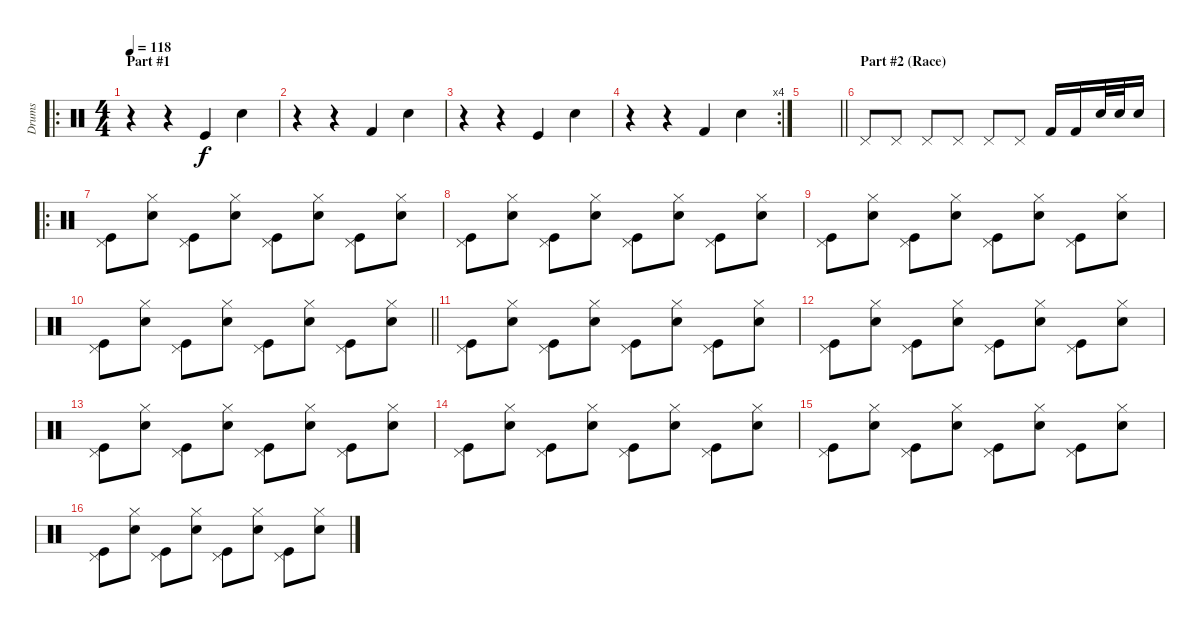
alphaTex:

\track ("Drums" "Drums") {instrument percussion}
\staff {score}
\articulation defaults
\ro
\ts (4 4)
\section ("" "Part #1")
\tempo 118
\clef neutral
\ks c
r.4{dy f} r.4 "Kick (hit)".4 "Electric Snare (hit)".4 |
r.4 r.4 "Kick (hit) 2".4 "Electric Snare (hit)".4 |
r.4 r.4 "Kick (hit)".4 "Electric Snare (hit)".4 |
\rc 4
r.4 r.4 "Kick (hit) 2".4 "Electric Snare (hit)".4 |
\barLineRight lightlight
|
\section ("" "Part #2 (Race)")
"Pedal Hi-Hat (hit)".8 "Pedal Hi-Hat (hit)".8 "Pedal Hi-Hat (hit)".8 "Pedal Hi-Hat (hit)".8 "Pedal Hi-Hat (hit)".8 "Pedal Hi-Hat (hit)".8 "Kick (hit) 2".16 "Kick (hit) 2".16 "Electric Snare (hit)".32 "Electric Snare (hit)".32 "Electric Snare (hit)".16 |
\ro
("Pedal Hi-Hat (hit)" "Kick (hit)").8 ("Hi-Hat (closed)" "Electric Snare (hit)").8 ("Pedal Hi-Hat (hit)" "Kick (hit)").8 ("Hi-Hat (closed)" "Electric Snare (hit)").8 ("Pedal Hi-Hat (hit)" "Kick (hit)").8 ("Hi-Hat (closed)" "Electric Snare (hit)").8 ("Pedal Hi-Hat (hit)" "Kick (hit)").8 ("Hi-Hat (closed)" "Electric Snare (hit)").8 |
("Pedal Hi-Hat (hit)" "Kick (hit)").8 ("Hi-Hat (closed)" "Electric Snare (hit)").8 ("Pedal Hi-Hat (hit)" "Kick (hit)").8 ("Hi-Hat (closed)" "Electric Snare (hit)").8 ("Pedal Hi-Hat (hit)" "Kick (hit)").8 ("Hi-Hat (closed)" "Electric Snare (hit)").8 ("Pedal Hi-Hat (hit)" "Kick (hit)").8 ("Hi-Hat (closed)" "Electric Snare (hit)").8 |
("Pedal Hi-Hat (hit)" "Kick (hit)").8 ("Hi-Hat (closed)" "Electric Snare (hit)").8 ("Pedal Hi-Hat (hit)" "Kick (hit)").8 ("Hi-Hat (closed)" "Electric Snare (hit)").8 ("Pedal Hi-Hat (hit)" "Kick (hit)").8 ("Hi-Hat (closed)" "Electric Snare (hit)").8 ("Pedal Hi-Hat (hit)" "Kick (hit)").8 ("Hi-Hat (closed)" "Electric Snare (hit)").8 |
\barLineRight lightlight
("Pedal Hi-Hat (hit)" "Kick (hit)").8 ("Hi-Hat (closed)" "Electric Snare (hit)").8 ("Pedal Hi-Hat (hit)" "Kick (hit)").8 ("Hi-Hat (closed)" "Electric Snare (hit)").8 ("Pedal Hi-Hat (hit)" "Kick (hit)").8 ("Hi-Hat (closed)" "Electric Snare (hit)").8 ("Pedal Hi-Hat (hit)" "Kick (hit)").8 ("Hi-Hat (closed)" "Electric Snare (hit)").8 |
\section ("" " ")
("Pedal Hi-Hat (hit)" "Kick (hit)").8 ("Hi-Hat (closed)" "Electric Snare (hit)").8 ("Pedal Hi-Hat (hit)" "Kick (hit)").8 ("Hi-Hat (closed)" "Electric Snare (hit)").8 ("Pedal Hi-Hat (hit)" "Kick (hit)").8 ("Hi-Hat (closed)" "Electric Snare (hit)").8 ("Pedal Hi-Hat (hit)" "Kick (hit)").8 ("Hi-Hat (closed)" "Electric Snare (hit)").8 |
("Pedal Hi-Hat (hit)" "Kick (hit)").8 ("Hi-Hat (closed)" "Electric Snare (hit)").8 ("Pedal Hi-Hat (hit)" "Kick (hit)").8 ("Hi-Hat (closed)" "Electric Snare (hit)").8 ("Pedal Hi-Hat (hit)" "Kick (hit)").8 ("Hi-Hat (closed)" "Electric Snare (hit)").8 ("Pedal Hi-Hat (hit)" "Kick (hit)").8 ("Hi-Hat (closed)" "Electric Snare (hit)").8 |
("Pedal Hi-Hat (hit)" "Kick (hit)").8 ("Hi-Hat (closed)" "Electric Snare (hit)").8 ("Pedal Hi-Hat (hit)" "Kick (hit)").8 ("Hi-Hat (closed)" "Electric Snare (hit)").8 ("Pedal Hi-Hat (hit)" "Kick (hit)").8 ("Hi-Hat (closed)" "Electric Snare (hit)").8 ("Pedal Hi-Hat (hit)" "Kick (hit)").8 ("Hi-Hat (closed)" "Electric Snare (hit)").8 |
("Pedal Hi-Hat (hit)" "Kick (hit)").8 ("Hi-Hat (closed)" "Electric Snare (hit)").8 ("Pedal Hi-Hat (hit)" "Kick (hit)").8 ("Hi-Hat (closed)" "Electric Snare (hit)").8 ("Pedal Hi-Hat (hit)" "Kick (hit)").8 ("Hi-Hat (closed)" "Electric Snare (hit)").8 ("Pedal Hi-Hat (hit)" "Kick (hit)").8 ("Hi-Hat (closed)" "Electric Snare (hit)").8 |
("Pedal Hi-Hat (hit)" "Kick (hit)").8 ("Hi-Hat (closed)" "Electric Snare (hit)").8 ("Pedal Hi-Hat (hit)" "Kick (hit)").8 ("Hi-Hat (closed)" "Electric Snare (hit)").8 ("Pedal Hi-Hat (hit)" "Kick (hit)").8 ("Hi-Hat (closed)" "Electric Snare (hit)").8 ("Pedal Hi-Hat (hit)" "Kick (hit)").8 ("Hi-Hat (closed)" "Electric Snare (hit)").8 |
("Pedal Hi-Hat (hit)" "Kick (hit)").8 ("Hi-Hat (closed)" "Electric Snare (hit)").8 ("Pedal Hi-Hat (hit)" "Kick (hit)").8 ("Hi-Hat (closed)" "Electric Snare (hit)").8 ("Pedal Hi-Hat (hit)" "Kick (hit)").8 ("Hi-Hat (closed)" "Electric Snare (hit)").8 ("Pedal Hi-Hat (hit)" "Kick (hit)").8 ("Hi-Hat (closed)" "Electric Snare (hit)").8
